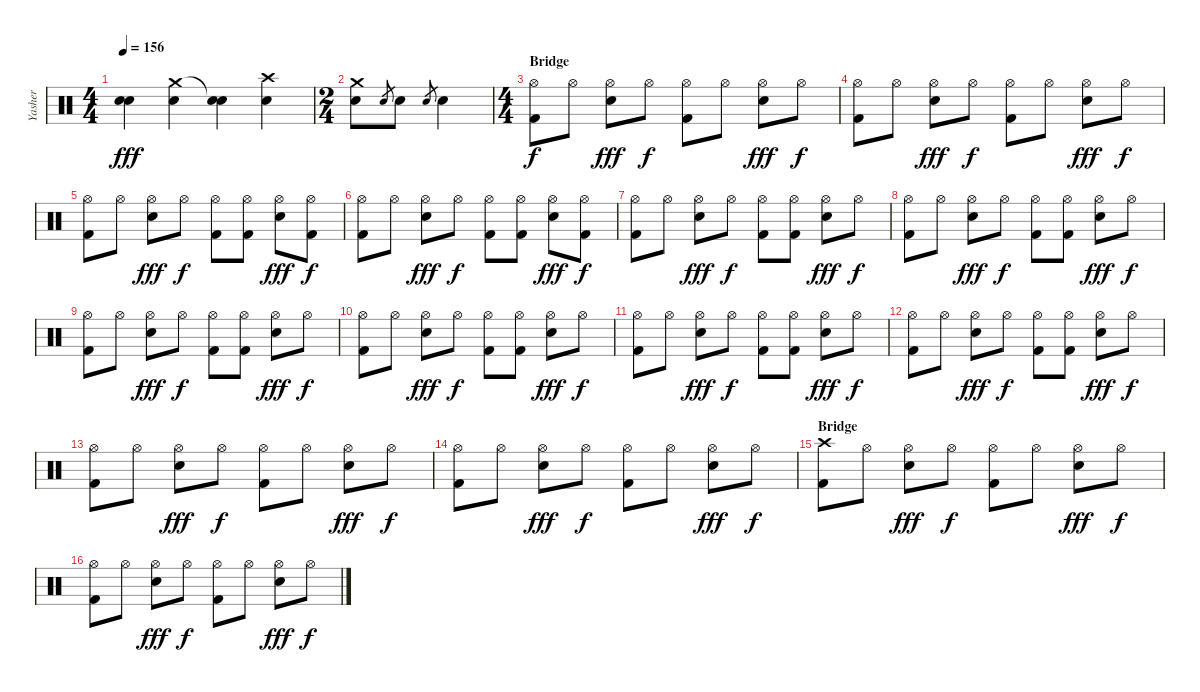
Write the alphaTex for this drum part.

\track ("Yasher" "Yasher") {instrument percussion}
\staff {score}
\articulation defaults
\ts (4 4)
\tempo 156
\clef neutral
\ks c
("Snare (hit)"{t} "Electric Snare (hit)").4{dy fff} ("Crash medium (hit)" "Electric Snare (hit)").4 ("Snare (hit)"{t} "Electric Snare (hit)").4 ("Crash high (hit)" "Electric Snare (hit)").4 |
\ts (2 4)
("Crash medium (hit)" "Electric Snare (hit)").8 "Electric Snare (hit)".8{gr} "Electric Snare (hit)".8 "Electric Snare (hit)".8{gr} "Electric Snare (hit)".4 |
\ts (4 4)
\section ("" "Bridge")
("Hi-Hat (open)" "Kick (hit) 2").8{dy f} "Hi-Hat (open)".8 ("Hi-Hat (open)" "Electric Snare (hit)").8{dy fff} "Hi-Hat (open)".8{dy f} ("Hi-Hat (open)" "Kick (hit) 2").8 "Hi-Hat (open)".8 ("Hi-Hat (open)" "Electric Snare (hit)").8{dy fff} "Hi-Hat (open)".8{dy f} |
("Hi-Hat (open)" "Kick (hit) 2").8 "Hi-Hat (open)".8 ("Hi-Hat (open)" "Electric Snare (hit)").8{dy fff} "Hi-Hat (open)".8{dy f} ("Hi-Hat (open)" "Kick (hit) 2").8 "Hi-Hat (open)".8 ("Hi-Hat (open)" "Electric Snare (hit)").8{dy fff} "Hi-Hat (open)".8{dy f} |
("Hi-Hat (open)" "Kick (hit) 2").8 "Hi-Hat (open)".8 ("Hi-Hat (open)" "Electric Snare (hit)").8{dy fff} "Hi-Hat (open)".8{dy f} ("Hi-Hat (open)" "Kick (hit) 2").8 ("Hi-Hat (open)" "Kick (hit) 2").8 ("Hi-Hat (open)" "Electric Snare (hit)").8{dy fff} ("Hi-Hat (open)" "Kick (hit) 2").8{dy f} |
("Hi-Hat (open)" "Kick (hit) 2").8 "Hi-Hat (open)".8 ("Hi-Hat (open)" "Electric Snare (hit)").8{dy fff} "Hi-Hat (open)".8{dy f} ("Hi-Hat (open)" "Kick (hit) 2").8 ("Hi-Hat (open)" "Kick (hit) 2").8 ("Hi-Hat (open)" "Electric Snare (hit)").8{dy fff} ("Hi-Hat (open)" "Kick (hit) 2").8{dy f} |
("Hi-Hat (open)" "Kick (hit) 2").8 "Hi-Hat (open)".8 ("Hi-Hat (open)" "Electric Snare (hit)").8{dy fff} "Hi-Hat (open)".8{dy f} ("Hi-Hat (open)" "Kick (hit) 2").8 ("Hi-Hat (open)" "Kick (hit) 2").8 ("Hi-Hat (open)" "Electric Snare (hit)").8{dy fff} "Hi-Hat (open)".8{dy f} |
("Hi-Hat (open)" "Kick (hit) 2").8 "Hi-Hat (open)".8 ("Hi-Hat (open)" "Electric Snare (hit)").8{dy fff} "Hi-Hat (open)".8{dy f} ("Hi-Hat (open)" "Kick (hit) 2").8 ("Hi-Hat (open)" "Kick (hit) 2").8 ("Hi-Hat (open)" "Electric Snare (hit)").8{dy fff} "Hi-Hat (open)".8{dy f} |
("Hi-Hat (open)" "Kick (hit) 2").8 "Hi-Hat (open)".8 ("Hi-Hat (open)" "Electric Snare (hit)").8{dy fff} "Hi-Hat (open)".8{dy f} ("Hi-Hat (open)" "Kick (hit) 2").8 ("Hi-Hat (open)" "Kick (hit) 2").8 ("Hi-Hat (open)" "Electric Snare (hit)").8{dy fff} "Hi-Hat (open)".8{dy f} |
("Hi-Hat (open)" "Kick (hit) 2").8 "Hi-Hat (open)".8 ("Hi-Hat (open)" "Electric Snare (hit)").8{dy fff} "Hi-Hat (open)".8{dy f} ("Hi-Hat (open)" "Kick (hit) 2").8 ("Hi-Hat (open)" "Kick (hit) 2").8 ("Hi-Hat (open)" "Electric Snare (hit)").8{dy fff} "Hi-Hat (open)".8{dy f} |
("Hi-Hat (open)" "Kick (hit) 2").8 "Hi-Hat (open)".8 ("Hi-Hat (open)" "Electric Snare (hit)").8{dy fff} "Hi-Hat (open)".8{dy f} ("Hi-Hat (open)" "Kick (hit) 2").8 ("Hi-Hat (open)" "Kick (hit) 2").8 ("Hi-Hat (open)" "Electric Snare (hit)").8{dy fff} "Hi-Hat (open)".8{dy f} |
("Hi-Hat (open)" "Kick (hit) 2").8 "Hi-Hat (open)".8 ("Hi-Hat (open)" "Electric Snare (hit)").8{dy fff} "Hi-Hat (open)".8{dy f} ("Hi-Hat (open)" "Kick (hit) 2").8 ("Hi-Hat (open)" "Kick (hit) 2").8 ("Hi-Hat (open)" "Electric Snare (hit)").8{dy fff} "Hi-Hat (open)".8{dy f} |
("Hi-Hat (open)" "Kick (hit) 2").8 "Hi-Hat (open)".8 ("Hi-Hat (open)" "Electric Snare (hit)").8{dy fff} "Hi-Hat (open)".8{dy f} ("Hi-Hat (open)" "Kick (hit) 2").8 "Hi-Hat (open)".8 ("Hi-Hat (open)" "Electric Snare (hit)").8{dy fff} "Hi-Hat (open)".8{dy f} |
("Hi-Hat (open)" "Kick (hit) 2").8 "Hi-Hat (open)".8 ("Hi-Hat (open)" "Electric Snare (hit)").8{dy fff} "Hi-Hat (open)".8{dy f} ("Hi-Hat (open)" "Kick (hit) 2").8 "Hi-Hat (open)".8 ("Hi-Hat (open)" "Electric Snare (hit)").8{dy fff} "Hi-Hat (open)".8{dy f} |
\section ("" "Bridge")
("Crash high (hit)" "Kick (hit) 2").8 "Hi-Hat (open)".8 ("Hi-Hat (open)" "Electric Snare (hit)").8{dy fff} "Hi-Hat (open)".8{dy f} ("Hi-Hat (open)" "Kick (hit) 2").8 "Hi-Hat (open)".8 ("Hi-Hat (open)" "Electric Snare (hit)").8{dy fff} "Hi-Hat (open)".8{dy f} |
("Hi-Hat (open)" "Kick (hit) 2").8 "Hi-Hat (open)".8 ("Hi-Hat (open)" "Electric Snare (hit)").8{dy fff} "Hi-Hat (open)".8{dy f} ("Hi-Hat (open)" "Kick (hit) 2").8 "Hi-Hat (open)".8 ("Hi-Hat (open)" "Electric Snare (hit)").8{dy fff} "Hi-Hat (open)".8{dy f}
